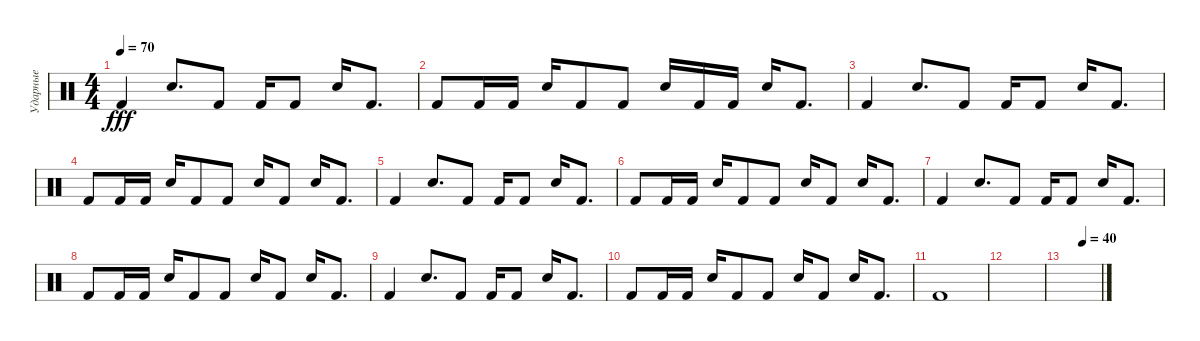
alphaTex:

\track ("Ударные" "Ударные") {instrument percussion}
\staff {score}
\articulation defaults
\ts (4 4)
\tempo 70
\clef neutral
\ks c "Kick (hit) 2".4{dy fff} "Electric Snare (hit)".8{d} "Kick (hit) 2".8 "Kick (hit) 2".16 "Kick (hit) 2".8 "Electric Snare (hit)".16 "Kick (hit) 2".8{d}
|
"Kick (hit) 2".8 "Kick (hit) 2".16 "Kick (hit) 2".16 "Electric Snare (hit)".16 "Kick (hit) 2".8 "Kick (hit) 2".8 "Electric Snare (hit)".16 "Kick (hit) 2".16 "Kick (hit) 2".16 "Electric Snare (hit)".16 "Kick (hit) 2".8{d} |
"Kick (hit) 2".4 "Electric Snare (hit)".8{d} "Kick (hit) 2".8 "Kick (hit) 2".16 "Kick (hit) 2".8 "Electric Snare (hit)".16 "Kick (hit) 2".8{d} |
"Kick (hit) 2".8 "Kick (hit) 2".16 "Kick (hit) 2".16 "Electric Snare (hit)".16 "Kick (hit) 2".8 "Kick (hit) 2".8 "Electric Snare (hit)".16 "Kick (hit) 2".8 "Electric Snare (hit)".16 "Kick (hit) 2".8{d} |
"Kick (hit) 2".4 "Electric Snare (hit)".8{d} "Kick (hit) 2".8 "Kick (hit) 2".16 "Kick (hit) 2".8 "Electric Snare (hit)".16 "Kick (hit) 2".8{d} |
"Kick (hit) 2".8 "Kick (hit) 2".16 "Kick (hit) 2".16 "Electric Snare (hit)".16 "Kick (hit) 2".8 "Kick (hit) 2".8 "Electric Snare (hit)".16 "Kick (hit) 2".8 "Electric Snare (hit)".16 "Kick (hit) 2".8{d} |
"Kick (hit) 2".4 "Electric Snare (hit)".8{d} "Kick (hit) 2".8 "Kick (hit) 2".16 "Kick (hit) 2".8 "Electric Snare (hit)".16 "Kick (hit) 2".8{d} |
"Kick (hit) 2".8 "Kick (hit) 2".16 "Kick (hit) 2".16 "Electric Snare (hit)".16 "Kick (hit) 2".8 "Kick (hit) 2".8 "Electric Snare (hit)".16 "Kick (hit) 2".8 "Electric Snare (hit)".16 "Kick (hit) 2".8{d} |
"Kick (hit) 2".4 "Electric Snare (hit)".8{d} "Kick (hit) 2".8 "Kick (hit) 2".16 "Kick (hit) 2".8 "Electric Snare (hit)".16 "Kick (hit) 2".8{d} |
"Kick (hit) 2".8 "Kick (hit) 2".16 "Kick (hit) 2".16 "Electric Snare (hit)".16 "Kick (hit) 2".8 "Kick (hit) 2".8 "Electric Snare (hit)".16 "Kick (hit) 2".8 "Electric Snare (hit)".16 "Kick (hit) 2".8{d} |
"Kick (hit) 2".1 |
|
\tempo (40 0.5)
